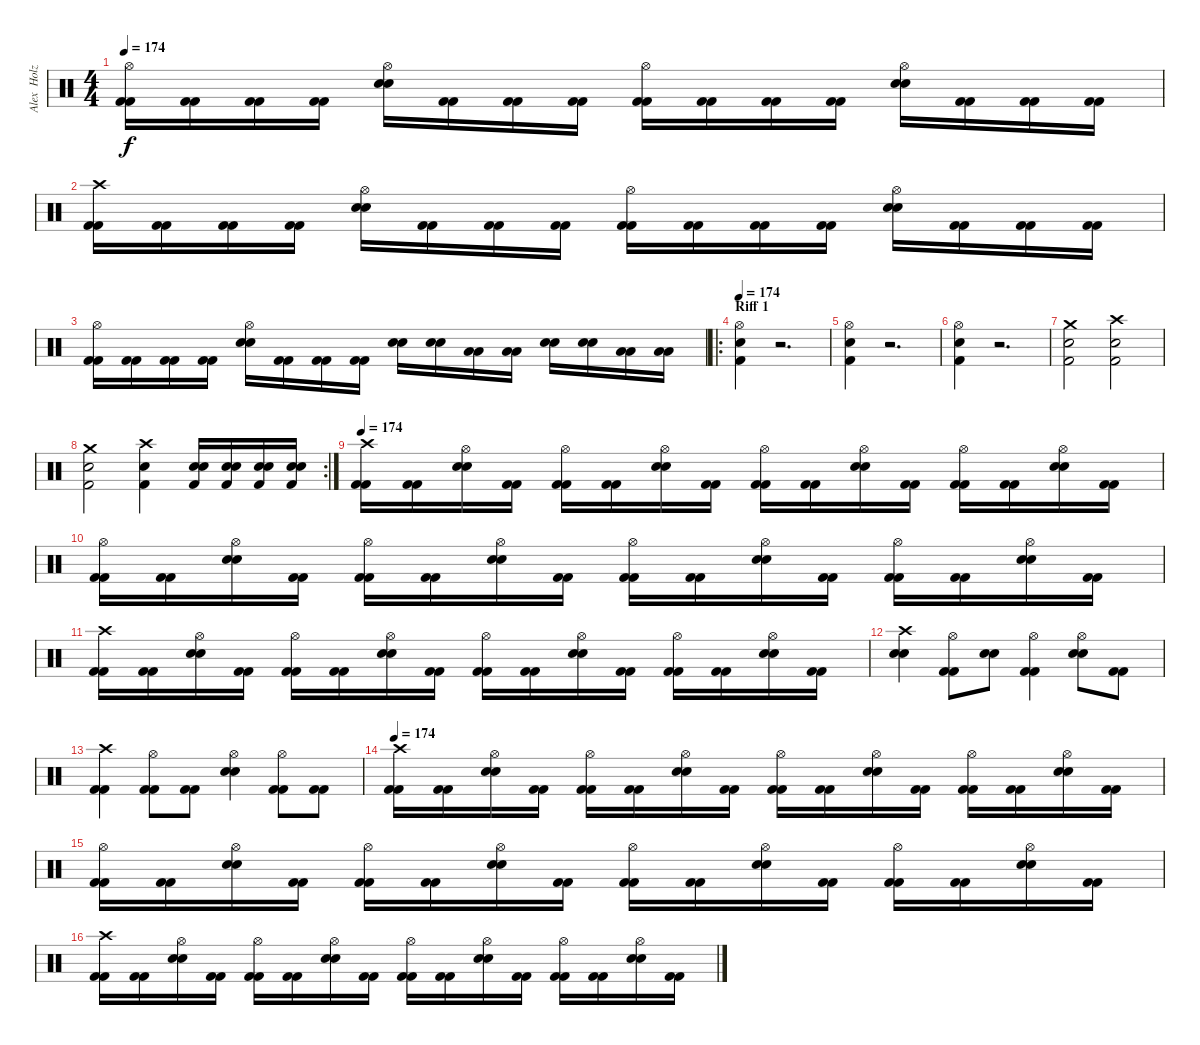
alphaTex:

\track ("Alex  Holzwarth (Drums)" "Alex  Holz") {instrument percussion}
\staff {score}
\articulation defaults
\ts (4 4)
\tempo 174
\clef neutral
\ks c
("Hi-Hat (open)" "Kick (hit) 2" "Kick (hit) 2").16{dy f} ("Kick (hit) 2" "Kick (hit) 2").16 ("Kick (hit) 2" "Kick (hit) 2").16 ("Kick (hit) 2" "Kick (hit) 2").16 ("Hi-Hat (open)" "Snare (hit) 2" "Snare (hit) 2").16 ("Kick (hit) 2" "Kick (hit) 2").16 ("Kick (hit) 2" "Kick (hit) 2").16 ("Kick (hit) 2" "Kick (hit) 2").16 ("Hi-Hat (open)" "Kick (hit) 2" "Kick (hit) 2").16 ("Kick (hit) 2" "Kick (hit) 2").16 ("Kick (hit) 2" "Kick (hit) 2").16 ("Kick (hit) 2" "Kick (hit) 2").16 ("Hi-Hat (open)" "Snare (hit) 2" "Snare (hit) 2").16 ("Kick (hit) 2" "Kick (hit) 2").16 ("Kick (hit) 2" "Kick (hit) 2").16 ("Kick (hit) 2" "Kick (hit) 2").16 |
("Crash high (hit)" "Kick (hit) 2" "Kick (hit) 2").16 ("Kick (hit) 2" "Kick (hit) 2").16 ("Kick (hit) 2" "Kick (hit) 2").16 ("Kick (hit) 2" "Kick (hit) 2").16 ("Hi-Hat (open)" "Snare (hit) 2" "Snare (hit) 2").16 ("Kick (hit) 2" "Kick (hit) 2").16 ("Kick (hit) 2" "Kick (hit) 2").16 ("Kick (hit) 2" "Kick (hit) 2").16 ("Hi-Hat (open)" "Kick (hit) 2" "Kick (hit) 2").16 ("Kick (hit) 2" "Kick (hit) 2").16 ("Kick (hit) 2" "Kick (hit) 2").16 ("Kick (hit) 2" "Kick (hit) 2").16 ("Hi-Hat (open)" "Snare (hit) 2" "Snare (hit) 2").16 ("Kick (hit) 2" "Kick (hit) 2").16 ("Kick (hit) 2" "Kick (hit) 2").16 ("Kick (hit) 2" "Kick (hit) 2").16 |
("Hi-Hat (open)" "Kick (hit) 2" "Kick (hit) 2").16 ("Kick (hit) 2" "Kick (hit) 2").16 ("Kick (hit) 2" "Kick (hit) 2").16 ("Kick (hit) 2" "Kick (hit) 2").16 ("Hi-Hat (open)" "Snare (hit) 2" "Snare (hit) 2").16 ("Kick (hit) 2" "Kick (hit) 2").16 ("Kick (hit) 2" "Kick (hit) 2").16 ("Kick (hit) 2" "Kick (hit) 2").16 ("Snare (hit) 2" "Snare (hit) 2").16 ("Snare (hit) 2" "Snare (hit) 2").16 ("Low Tom (hit)" "Low Tom (hit)").16 ("Low Tom (hit)" "Low Tom (hit)").16 ("Snare (hit) 2" "Snare (hit) 2").16 ("Snare (hit) 2" "Snare (hit) 2").16 ("Low Tom (hit)" "Low Tom (hit)").16 ("Low Tom (hit)" "Low Tom (hit)").16 |
\ro
\section ("" "Riff 1")
\tempo 174
("Hi-Hat (open)" "Snare (hit) 2" "Kick (hit) 2").4 r.2{d} |
("Hi-Hat (open)" "Snare (hit) 2" "Kick (hit) 2").4 r.2{d} |
("Hi-Hat (open)" "Snare (hit) 2" "Kick (hit) 2").4 r.2{d} |
("Crash medium (hit)" "Snare (hit) 2" "Kick (hit) 2").2 ("Crash high (hit)" "Snare (hit) 2" "Kick (hit) 2").2 |
\rc 2
("Crash medium (hit)" "Snare (hit) 2" "Kick (hit) 2").2 ("Crash high (hit)" "Snare (hit) 2" "Kick (hit) 2").4 ("Kick (hit) 2" "Snare (hit) 2" "Snare (hit) 2").16 ("Kick (hit) 2" "Snare (hit) 2" "Snare (hit) 2").16 ("Kick (hit) 2" "Snare (hit) 2" "Snare (hit) 2").16 ("Kick (hit) 2" "Snare (hit) 2" "Snare (hit) 2").16 |
\tempo 174
("Crash high (hit)" "Kick (hit) 2" "Kick (hit) 2").16 ("Kick (hit) 2" "Kick (hit) 2").16 ("Hi-Hat (open)" "Snare (hit) 2" "Snare (hit) 2").16 ("Kick (hit) 2" "Kick (hit) 2").16 ("Hi-Hat (open)" "Kick (hit) 2" "Kick (hit) 2").16 ("Kick (hit) 2" "Kick (hit) 2").16 ("Hi-Hat (open)" "Snare (hit) 2" "Snare (hit) 2").16 ("Kick (hit) 2" "Kick (hit) 2").16 ("Hi-Hat (open)" "Kick (hit) 2" "Kick (hit) 2").16 ("Kick (hit) 2" "Kick (hit) 2").16 ("Hi-Hat (open)" "Snare (hit) 2" "Snare (hit) 2").16 ("Kick (hit) 2" "Kick (hit) 2").16 ("Hi-Hat (open)" "Kick (hit) 2" "Kick (hit) 2").16 ("Kick (hit) 2" "Kick (hit) 2").16 ("Hi-Hat (open)" "Snare (hit) 2" "Snare (hit) 2").16 ("Kick (hit) 2" "Kick (hit) 2").16 |
("Hi-Hat (open)" "Kick (hit) 2" "Kick (hit) 2").16 ("Kick (hit) 2" "Kick (hit) 2").16 ("Hi-Hat (open)" "Snare (hit) 2" "Snare (hit) 2").16 ("Kick (hit) 2" "Kick (hit) 2").16 ("Hi-Hat (open)" "Kick (hit) 2" "Kick (hit) 2").16 ("Kick (hit) 2" "Kick (hit) 2").16 ("Hi-Hat (open)" "Snare (hit) 2" "Snare (hit) 2").16 ("Kick (hit) 2" "Kick (hit) 2").16 ("Hi-Hat (open)" "Kick (hit) 2" "Kick (hit) 2").16 ("Kick (hit) 2" "Kick (hit) 2").16 ("Hi-Hat (open)" "Snare (hit) 2" "Snare (hit) 2").16 ("Kick (hit) 2" "Kick (hit) 2").16 ("Hi-Hat (open)" "Kick (hit) 2" "Kick (hit) 2").16 ("Kick (hit) 2" "Kick (hit) 2").16 ("Hi-Hat (open)" "Snare (hit) 2" "Snare (hit) 2").16 ("Kick (hit) 2" "Kick (hit) 2").16 |
("Crash high (hit)" "Kick (hit) 2" "Kick (hit) 2").16 ("Kick (hit) 2" "Kick (hit) 2").16 ("Hi-Hat (open)" "Snare (hit) 2" "Snare (hit) 2").16 ("Kick (hit) 2" "Kick (hit) 2").16 ("Hi-Hat (open)" "Kick (hit) 2" "Kick (hit) 2").16 ("Kick (hit) 2" "Kick (hit) 2").16 ("Hi-Hat (open)" "Snare (hit) 2" "Snare (hit) 2").16 ("Kick (hit) 2" "Kick (hit) 2").16 ("Hi-Hat (open)" "Kick (hit) 2" "Kick (hit) 2").16 ("Kick (hit) 2" "Kick (hit) 2").16 ("Hi-Hat (open)" "Snare (hit) 2" "Snare (hit) 2").16 ("Kick (hit) 2" "Kick (hit) 2").16 ("Hi-Hat (open)" "Kick (hit) 2" "Kick (hit) 2").16 ("Kick (hit) 2" "Kick (hit) 2").16 ("Hi-Hat (open)" "Snare (hit) 2" "Snare (hit) 2").16 ("Kick (hit) 2" "Kick (hit) 2").16 |
("Crash high (hit)" "Snare (hit) 2" "Snare (hit) 2").4 ("Hi-Hat (open)" "Kick (hit) 2" "Kick (hit) 2").8 ("Snare (hit) 2" "Snare (hit) 2").8 ("Hi-Hat (open)" "Kick (hit) 2" "Kick (hit) 2").4 ("Hi-Hat (open)" "Snare (hit) 2" "Snare (hit) 2").8 ("Kick (hit) 2" "Kick (hit) 2").8 |
("Crash high (hit)" "Kick (hit) 2" "Kick (hit) 2").4 ("Hi-Hat (open)" "Kick (hit) 2" "Kick (hit) 2").8 ("Kick (hit) 2" "Kick (hit) 2").8 ("Hi-Hat (open)" "Snare (hit) 2" "Snare (hit) 2").4 ("Hi-Hat (open)" "Kick (hit) 2" "Kick (hit) 2").8 ("Kick (hit) 2" "Kick (hit) 2").8 |
\tempo 174
("Crash high (hit)" "Kick (hit) 2" "Kick (hit) 2").16 ("Kick (hit) 2" "Kick (hit) 2").16 ("Hi-Hat (open)" "Snare (hit) 2" "Snare (hit) 2").16 ("Kick (hit) 2" "Kick (hit) 2").16 ("Hi-Hat (open)" "Kick (hit) 2" "Kick (hit) 2").16 ("Kick (hit) 2" "Kick (hit) 2").16 ("Hi-Hat (open)" "Snare (hit) 2" "Snare (hit) 2").16 ("Kick (hit) 2" "Kick (hit) 2").16 ("Hi-Hat (open)" "Kick (hit) 2" "Kick (hit) 2").16 ("Kick (hit) 2" "Kick (hit) 2").16 ("Hi-Hat (open)" "Snare (hit) 2" "Snare (hit) 2").16 ("Kick (hit) 2" "Kick (hit) 2").16 ("Hi-Hat (open)" "Kick (hit) 2" "Kick (hit) 2").16 ("Kick (hit) 2" "Kick (hit) 2").16 ("Hi-Hat (open)" "Snare (hit) 2" "Snare (hit) 2").16 ("Kick (hit) 2" "Kick (hit) 2").16 |
("Hi-Hat (open)" "Kick (hit) 2" "Kick (hit) 2").16 ("Kick (hit) 2" "Kick (hit) 2").16 ("Hi-Hat (open)" "Snare (hit) 2" "Snare (hit) 2").16 ("Kick (hit) 2" "Kick (hit) 2").16 ("Hi-Hat (open)" "Kick (hit) 2" "Kick (hit) 2").16 ("Kick (hit) 2" "Kick (hit) 2").16 ("Hi-Hat (open)" "Snare (hit) 2" "Snare (hit) 2").16 ("Kick (hit) 2" "Kick (hit) 2").16 ("Hi-Hat (open)" "Kick (hit) 2" "Kick (hit) 2").16 ("Kick (hit) 2" "Kick (hit) 2").16 ("Hi-Hat (open)" "Snare (hit) 2" "Snare (hit) 2").16 ("Kick (hit) 2" "Kick (hit) 2").16 ("Hi-Hat (open)" "Kick (hit) 2" "Kick (hit) 2").16 ("Kick (hit) 2" "Kick (hit) 2").16 ("Hi-Hat (open)" "Snare (hit) 2" "Snare (hit) 2").16 ("Kick (hit) 2" "Kick (hit) 2").16 |
("Crash high (hit)" "Kick (hit) 2" "Kick (hit) 2").16 ("Kick (hit) 2" "Kick (hit) 2").16 ("Hi-Hat (open)" "Snare (hit) 2" "Snare (hit) 2").16 ("Kick (hit) 2" "Kick (hit) 2").16 ("Hi-Hat (open)" "Kick (hit) 2" "Kick (hit) 2").16 ("Kick (hit) 2" "Kick (hit) 2").16 ("Hi-Hat (open)" "Snare (hit) 2" "Snare (hit) 2").16 ("Kick (hit) 2" "Kick (hit) 2").16 ("Hi-Hat (open)" "Kick (hit) 2" "Kick (hit) 2").16 ("Kick (hit) 2" "Kick (hit) 2").16 ("Hi-Hat (open)" "Snare (hit) 2" "Snare (hit) 2").16 ("Kick (hit) 2" "Kick (hit) 2").16 ("Hi-Hat (open)" "Kick (hit) 2" "Kick (hit) 2").16 ("Kick (hit) 2" "Kick (hit) 2").16 ("Hi-Hat (open)" "Snare (hit) 2" "Snare (hit) 2").16 ("Kick (hit) 2" "Kick (hit) 2").16
